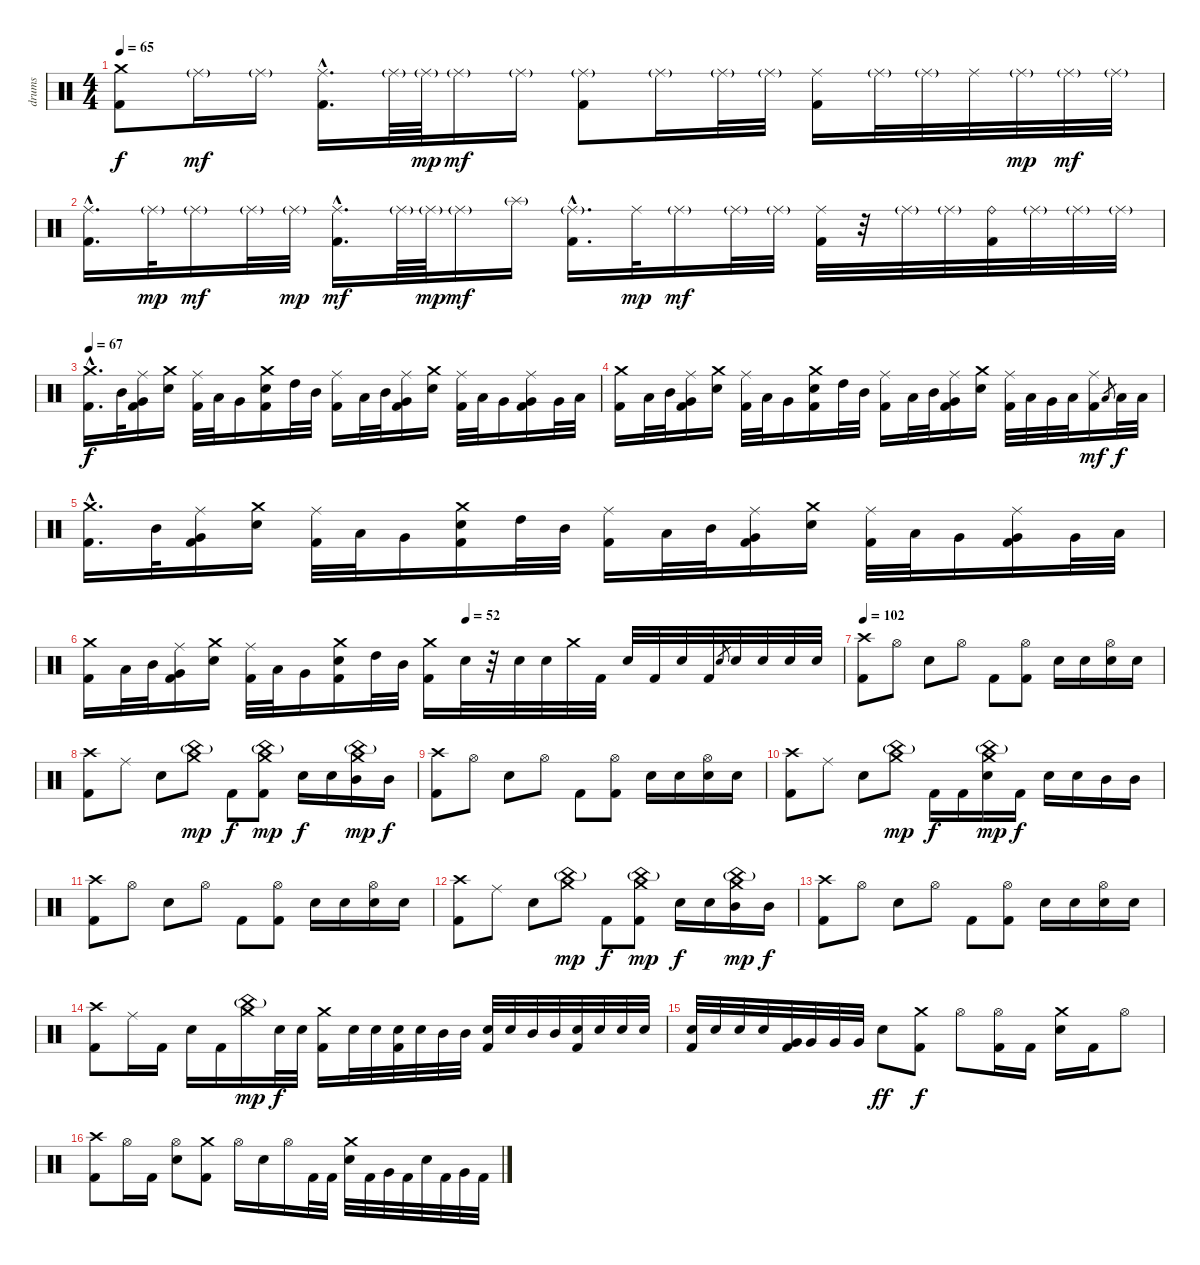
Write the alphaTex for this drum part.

\track ("drums" "drums") {instrument percussion}
\staff {score}
\articulation defaults
\ts (4 4)
\tempo 65
\clef neutral
\ks c
("Crash medium (hit)" "Kick (hit) 2").8{dy f} "Ride (middle)"{g}.16{dy mf} "Ride (middle)"{g}.16 ("Ride (middle)"{hac} "Kick (hit) 2"{hac}).16{d} "Ride (middle)"{g}.64 "Ride (middle)"{g}.64{dy mp} "Ride (middle)"{g}.16{dy mf} "Ride (middle)"{g}.16 ("Ride (middle)"{g} "Kick (hit) 2").8 "Ride (middle)"{g}.16 "Ride (middle)"{g}.32 "Ride (middle)"{g}.32 ("Ride (middle)" "Kick (hit) 2").16 "Ride (middle)"{g}.32 "Ride (middle)"{g}.32 "Ride (middle)".32 "Ride (middle)"{g}.32{dy mp} "Ride (middle)"{g}.32{dy mf} "Ride (middle)"{g}.32 |
("Ride (middle)"{hac} "Kick (hit) 2"{hac}).16{d} "Ride (middle)"{g}.32{dy mp} "Ride (middle)"{g}.16{dy mf} "Ride (middle)"{g}.32 "Ride (middle)"{g}.32{dy mp} ("Ride (middle)"{hac} "Kick (hit) 2"{hac}).16{d dy mf} "Ride (middle)"{g}.64 "Ride (middle)"{g}.64{dy mp} "Ride (middle)"{g}.16{dy mf} "Splash (hit)"{g}.16 ("Ride (middle)"{g hac} "Kick (hit) 2"{hac}).16{d} "Ride (middle)".32{dy mp} "Ride (middle)"{g}.16{dy mf} "Ride (middle)"{g}.32 "Ride (middle)"{g}.32 ("Ride (middle)" "Kick (hit) 2").32 r.32 "Ride (middle)"{g}.32 "Ride (middle)"{g}.32 ("Ride (bell)" "Kick (hit) 2").32 "Ride (middle)"{g}.32 "Ride (middle)"{g}.32 "Ride (middle)"{g}.32 |
\tempo 67
("Crash medium (hit)"{hac} "Kick (hit) 2"{hac}).16{d dy f} "Mid Tom (hit)".32 ("Ride (middle)" "Very Low Tom (hit)" "Kick (hit) 2").16 ("Crash medium (hit)" "Electric Snare (hit)").16 ("Ride (middle)" "Kick (hit) 2").32 "Low Tom (hit)".32 "Very Low Tom (hit)".16 ("Crash medium (hit)" "Electric Snare (hit)" "Kick (hit) 2").16 "High Tom (hit)".32 "Mid Tom (hit)".32 ("Ride (middle)" "Kick (hit) 2").16 "Low Tom (hit)".32 "Mid Tom (hit)".32 ("Ride (middle)" "Very Low Tom (hit)" "Kick (hit) 2").16 ("Crash medium (hit)" "Electric Snare (hit)").16 ("Ride (middle)" "Kick (hit) 2").32 "Low Tom (hit)".32 "Very Low Tom (hit)".16 ("Ride (middle)" "Very Low Tom (hit)" "Kick (hit) 2").16 "Very Low Tom (hit)".32 "Low Floor Tom (hit)".32 |
("Crash medium (hit)" "Kick (hit) 2").16 "Low Tom (hit)".32 "Mid Tom (hit)".32 ("Ride (middle)" "Very Low Tom (hit)" "Kick (hit) 2").16 ("Crash medium (hit)" "Electric Snare (hit)").16 ("Ride (middle)" "Kick (hit) 2").32 "Low Tom (hit)".32 "Very Low Tom (hit)".16 ("Crash medium (hit)" "Electric Snare (hit)" "Kick (hit) 2").16 "High Tom (hit)".32 "Mid Tom (hit)".32 ("Ride (middle)" "Kick (hit) 2").16 "Low Tom (hit)".32 "Mid Tom (hit)".32 ("Ride (middle)" "Very Low Tom (hit)" "Kick (hit) 2").16 ("Crash medium (hit)" "Electric Snare (hit)").16 ("Ride (middle)" "Kick (hit) 2").32 "Low Tom (hit)".32 "Very Low Tom (hit)".32 "Low Floor Tom (hit)".32 ("Ride (middle)" "Kick (hit) 2").16{dy mf} "Low Tom (hit)".8{gr} "Low Tom (hit)".32{dy f} "Low Tom (hit)".32 |
("Crash medium (hit)"{hac} "Kick (hit) 2"{hac}).16{d} "Mid Tom (hit)".32 ("Ride (middle)" "Very Low Tom (hit)" "Kick (hit) 2").16 ("Crash medium (hit)" "Electric Snare (hit)").16 ("Ride (middle)" "Kick (hit) 2").32 "Low Tom (hit)".32 "Very Low Tom (hit)".16 ("Crash medium (hit)" "Electric Snare (hit)" "Kick (hit) 2").16 "High Tom (hit)".32 "Mid Tom (hit)".32 ("Ride (middle)" "Kick (hit) 2").16 "Low Tom (hit)".32 "Mid Tom (hit)".32 ("Ride (middle)" "Very Low Tom (hit)" "Kick (hit) 2").16 ("Crash medium (hit)" "Electric Snare (hit)").16 ("Ride (middle)" "Kick (hit) 2").32 "Low Tom (hit)".32 "Very Low Tom (hit)".16 ("Ride (middle)" "Very Low Tom (hit)" "Kick (hit) 2").16 "Very Low Tom (hit)".32 "Low Floor Tom (hit)".32 |
\tempo (52 0.5)
("Crash medium (hit)" "Kick (hit) 2").16 "Low Tom (hit)".32 "Mid Tom (hit)".32 ("Ride (middle)" "Very Low Tom (hit)" "Kick (hit) 2").16 ("Crash medium (hit)" "Electric Snare (hit)").16 ("Ride (middle)" "Kick (hit) 2").32 "Low Tom (hit)".32 "Very Low Tom (hit)".16 ("Crash medium (hit)" "Electric Snare (hit)" "Kick (hit) 2").16 "High Tom (hit)".32 "Mid Tom (hit)".32 ("Crash medium (hit)" "Kick (hit) 2").16 "Electric Snare (hit)".32 r.32 "Electric Snare (hit)".32 "Electric Snare (hit)".32 "Crash medium (hit)".32 "Kick (hit) 2".32 "Electric Snare (hit)".32 "Kick (hit) 2".32 "Electric Snare (hit)".32 "Kick (hit) 2".32 "Electric Snare (hit)".8{gr} "Electric Snare (hit)".32 "Electric Snare (hit)".32 "Electric Snare (hit)".32 "Electric Snare (hit)".32 |
\tempo 102
("Crash high (hit)" "Kick (hit) 2").8 "Hi-Hat (open)".8 "Electric Snare (hit)".8 "Hi-Hat (open)".8 "Kick (hit) 2".8 ("Hi-Hat (open)" "Kick (hit) 2").8 "Electric Snare (hit)".16 "Electric Snare (hit)".16 ("Hi-Hat (open)" "Electric Snare (hit)").16 "Electric Snare (hit)".16 |
("Crash high (hit)" "Kick (hit) 2").8 "Ride (middle)".8 "Electric Snare (hit)".8 ("Crash medium (hit)" "China (hit)"{g}).8{dy mp} "Kick (hit) 2".8{dy f} ("Crash medium (hit)" "China (hit)"{g} "Kick (hit) 2").8{dy mp} "Electric Snare (hit)".16{dy f} "Electric Snare (hit)".16 ("Crash medium (hit)" "China (hit)"{g} "Mid Tom (hit)").16{dy mp} "Mid Tom (hit)".16{dy f} |
("Crash high (hit)" "Kick (hit) 2").8 "Hi-Hat (open)".8 "Electric Snare (hit)".8 "Hi-Hat (open)".8 "Kick (hit) 2".8 ("Hi-Hat (open)" "Kick (hit) 2").8 "Electric Snare (hit)".16 "Electric Snare (hit)".16 ("Hi-Hat (open)" "Electric Snare (hit)").16 "Electric Snare (hit)".16 |
("Crash high (hit)" "Kick (hit) 2").8 "Ride (middle)".8 "Electric Snare (hit)".8 ("Crash medium (hit)" "China (hit)"{g}).8{dy mp} "Kick (hit) 2".16{dy f} "Kick (hit) 2".16 ("Crash medium (hit)" "China (hit)"{g} "Electric Snare (hit)").16{dy mp} "Kick (hit) 2".16{dy f} "Electric Snare (hit)".16 "Electric Snare (hit)".16 "Mid Tom (hit)".16 "Mid Tom (hit)".16 |
("Crash high (hit)" "Kick (hit) 2").8 "Hi-Hat (open)".8 "Electric Snare (hit)".8 "Hi-Hat (open)".8 "Kick (hit) 2".8 ("Hi-Hat (open)" "Kick (hit) 2").8 "Electric Snare (hit)".16 "Electric Snare (hit)".16 ("Hi-Hat (open)" "Electric Snare (hit)").16 "Electric Snare (hit)".16 |
("Crash high (hit)" "Kick (hit) 2").8 "Ride (middle)".8 "Electric Snare (hit)".8 ("Crash medium (hit)" "China (hit)"{g}).8{dy mp} "Kick (hit) 2".8{dy f} ("Crash medium (hit)" "China (hit)"{g} "Kick (hit) 2").8{dy mp} "Electric Snare (hit)".16{dy f} "Electric Snare (hit)".16 ("Crash medium (hit)" "China (hit)"{g} "Mid Tom (hit)").16{dy mp} "Mid Tom (hit)".16{dy f} |
("Crash high (hit)" "Kick (hit) 2").8 "Hi-Hat (open)".8 "Electric Snare (hit)".8 "Hi-Hat (open)".8 "Kick (hit) 2".8 ("Hi-Hat (open)" "Kick (hit) 2").8 "Electric Snare (hit)".16 "Electric Snare (hit)".16 ("Hi-Hat (open)" "Electric Snare (hit)").16 "Electric Snare (hit)".16 |
("Crash high (hit)" "Kick (hit) 2").8 "Ride (middle)".16 "Kick (hit) 2".16 "Electric Snare (hit)".16 "Kick (hit) 2".16 ("Crash medium (hit)" "China (hit)"{g}).16{dy mp} "Electric Snare (hit)".32{dy f} "Electric Snare (hit)".32 ("Crash medium (hit)" "Kick (hit) 2").16 "Electric Snare (hit)".32 "Electric Snare (hit)".32 ("Electric Snare (hit)" "Kick (hit) 2").32 "Electric Snare (hit)".32 "Mid Tom (hit)".32 "Mid Tom (hit)".32 ("Electric Snare (hit)" "Kick (hit) 2").32 "Electric Snare (hit)".32 "Mid Tom (hit)".32 "Mid Tom (hit)".32 ("Electric Snare (hit)" "Kick (hit) 2").32 "Electric Snare (hit)".32 "Electric Snare (hit)".32 "Electric Snare (hit)".32 |
("Electric Snare (hit)" "Kick (hit) 2").32 "Electric Snare (hit)".32 "Electric Snare (hit)".32 "Electric Snare (hit)".32 ("Very Low Tom (hit)" "Kick (hit) 2").32 "Very Low Tom (hit)".32 "Very Low Tom (hit)".32 "Very Low Tom (hit)".32 "Electric Snare (hit)".8{dy ff} ("Crash medium (hit)" "Kick (hit) 2").8{dy f} "Hi-Hat (open)".8 ("Hi-Hat (open)" "Kick (hit) 2").16 "Kick (hit) 2".16 ("Crash medium (hit)" "Electric Snare (hit)").16 "Kick (hit) 2".16 "Hi-Hat (open)".8 |
("Crash high (hit)" "Kick (hit) 2").8 "Hi-Hat (open)".16 "Kick (hit) 2".16 ("Hi-Hat (open)" "Electric Snare (hit)").8 ("Crash medium (hit)" "Kick (hit) 2").8 "Hi-Hat (open)".16 "Electric Snare (hit)".16 "Hi-Hat (open)".16 "Kick (hit) 2".32 "Kick (hit) 2".32 ("Crash medium (hit)" "Electric Snare (hit)").32 "Kick (hit) 2".32 "Very Low Tom (hit)".32 "Kick (hit) 2".32 "Electric Snare (hit)".32 "Kick (hit) 2".32 "Very Low Tom (hit)".32 "Kick (hit) 2".32
